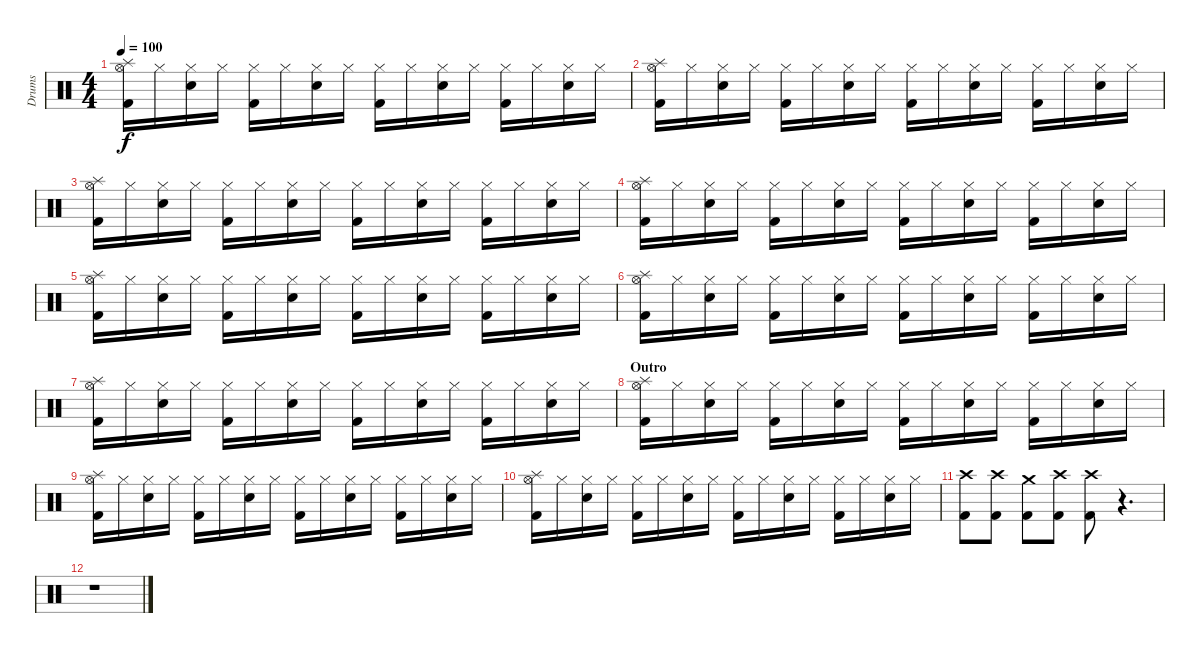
\track ("Drums" "Drums") {instrument percussion}
\staff {score}
\articulation defaults
\ts (4 4)
\tempo 100
\clef neutral
\ks c
("Hi-Hat (open)" "Splash (hit)" "Kick (hit) 2").16{dy f} "Hi-Hat (closed)".16 ("Hi-Hat (closed)" "Snare (hit) 2").16 "Hi-Hat (closed)".16 ("Hi-Hat (closed)" "Kick (hit) 2").16 "Hi-Hat (closed)".16 ("Hi-Hat (closed)" "Snare (hit) 2").16 "Hi-Hat (closed)".16 ("Hi-Hat (closed)" "Kick (hit) 2").16 "Hi-Hat (closed)".16 ("Hi-Hat (closed)" "Snare (hit) 2").16 "Hi-Hat (closed)".16 ("Hi-Hat (closed)" "Kick (hit) 2").16 "Hi-Hat (closed)".16 ("Hi-Hat (closed)" "Snare (hit) 2").16 "Hi-Hat (closed)".16 |
("Hi-Hat (open)" "Splash (hit)" "Kick (hit) 2").16 "Hi-Hat (closed)".16 ("Hi-Hat (closed)" "Snare (hit) 2").16 "Hi-Hat (closed)".16 ("Hi-Hat (closed)" "Kick (hit) 2").16 "Hi-Hat (closed)".16 ("Hi-Hat (closed)" "Snare (hit) 2").16 "Hi-Hat (closed)".16 ("Hi-Hat (closed)" "Kick (hit) 2").16 "Hi-Hat (closed)".16 ("Hi-Hat (closed)" "Snare (hit) 2").16 "Hi-Hat (closed)".16 ("Hi-Hat (closed)" "Kick (hit) 2").16 "Hi-Hat (closed)".16 ("Hi-Hat (closed)" "Snare (hit) 2").16 "Hi-Hat (closed)".16 |
("Hi-Hat (open)" "Splash (hit)" "Kick (hit) 2").16 "Hi-Hat (closed)".16 ("Hi-Hat (closed)" "Snare (hit) 2").16 "Hi-Hat (closed)".16 ("Hi-Hat (closed)" "Kick (hit) 2").16 "Hi-Hat (closed)".16 ("Hi-Hat (closed)" "Snare (hit) 2").16 "Hi-Hat (closed)".16 ("Hi-Hat (closed)" "Kick (hit) 2").16 "Hi-Hat (closed)".16 ("Hi-Hat (closed)" "Snare (hit) 2").16 "Hi-Hat (closed)".16 ("Hi-Hat (closed)" "Kick (hit) 2").16 "Hi-Hat (closed)".16 ("Hi-Hat (closed)" "Snare (hit) 2").16 "Hi-Hat (closed)".16 |
("Hi-Hat (open)" "Splash (hit)" "Kick (hit) 2").16 "Hi-Hat (closed)".16 ("Hi-Hat (closed)" "Snare (hit) 2").16 "Hi-Hat (closed)".16 ("Hi-Hat (closed)" "Kick (hit) 2").16 "Hi-Hat (closed)".16 ("Hi-Hat (closed)" "Snare (hit) 2").16 "Hi-Hat (closed)".16 ("Hi-Hat (closed)" "Kick (hit) 2").16 "Hi-Hat (closed)".16 ("Hi-Hat (closed)" "Snare (hit) 2").16 "Hi-Hat (closed)".16 ("Hi-Hat (closed)" "Kick (hit) 2").16 "Hi-Hat (closed)".16 ("Hi-Hat (closed)" "Snare (hit) 2").16 "Hi-Hat (closed)".16 |
("Hi-Hat (open)" "Splash (hit)" "Kick (hit) 2").16 "Hi-Hat (closed)".16 ("Hi-Hat (closed)" "Snare (hit) 2").16 "Hi-Hat (closed)".16 ("Hi-Hat (closed)" "Kick (hit) 2").16 "Hi-Hat (closed)".16 ("Hi-Hat (closed)" "Snare (hit) 2").16 "Hi-Hat (closed)".16 ("Hi-Hat (closed)" "Kick (hit) 2").16 "Hi-Hat (closed)".16 ("Hi-Hat (closed)" "Snare (hit) 2").16 "Hi-Hat (closed)".16 ("Hi-Hat (closed)" "Kick (hit) 2").16 "Hi-Hat (closed)".16 ("Hi-Hat (closed)" "Snare (hit) 2").16 "Hi-Hat (closed)".16 |
("Hi-Hat (open)" "Splash (hit)" "Kick (hit) 2").16 "Hi-Hat (closed)".16 ("Hi-Hat (closed)" "Snare (hit) 2").16 "Hi-Hat (closed)".16 ("Hi-Hat (closed)" "Kick (hit) 2").16 "Hi-Hat (closed)".16 ("Hi-Hat (closed)" "Snare (hit) 2").16 "Hi-Hat (closed)".16 ("Hi-Hat (closed)" "Kick (hit) 2").16 "Hi-Hat (closed)".16 ("Hi-Hat (closed)" "Snare (hit) 2").16 "Hi-Hat (closed)".16 ("Hi-Hat (closed)" "Kick (hit) 2").16 "Hi-Hat (closed)".16 ("Hi-Hat (closed)" "Snare (hit) 2").16 "Hi-Hat (closed)".16 |
("Hi-Hat (open)" "Splash (hit)" "Kick (hit) 2").16 "Hi-Hat (closed)".16 ("Hi-Hat (closed)" "Snare (hit) 2").16 "Hi-Hat (closed)".16 ("Hi-Hat (closed)" "Kick (hit) 2").16 "Hi-Hat (closed)".16 ("Hi-Hat (closed)" "Snare (hit) 2").16 "Hi-Hat (closed)".16 ("Hi-Hat (closed)" "Kick (hit) 2").16 "Hi-Hat (closed)".16 ("Hi-Hat (closed)" "Snare (hit) 2").16 "Hi-Hat (closed)".16 ("Hi-Hat (closed)" "Kick (hit) 2").16 "Hi-Hat (closed)".16 ("Hi-Hat (closed)" "Snare (hit) 2").16 "Hi-Hat (closed)".16 |
\section ("" "Outro")
("Hi-Hat (open)" "Splash (hit)" "Kick (hit) 2").16 "Hi-Hat (closed)".16 ("Hi-Hat (closed)" "Snare (hit) 2").16 "Hi-Hat (closed)".16 ("Hi-Hat (closed)" "Kick (hit) 2").16 "Hi-Hat (closed)".16 ("Hi-Hat (closed)" "Snare (hit) 2").16 "Hi-Hat (closed)".16 ("Hi-Hat (closed)" "Kick (hit) 2").16 "Hi-Hat (closed)".16 ("Hi-Hat (closed)" "Snare (hit) 2").16 "Hi-Hat (closed)".16 ("Hi-Hat (closed)" "Kick (hit) 2").16 "Hi-Hat (closed)".16 ("Hi-Hat (closed)" "Snare (hit) 2").16 "Hi-Hat (closed)".16 |
("Hi-Hat (open)" "Splash (hit)" "Kick (hit) 2").16 "Hi-Hat (closed)".16 ("Hi-Hat (closed)" "Snare (hit) 2").16 "Hi-Hat (closed)".16 ("Hi-Hat (closed)" "Kick (hit) 2").16 "Hi-Hat (closed)".16 ("Hi-Hat (closed)" "Snare (hit) 2").16 "Hi-Hat (closed)".16 ("Hi-Hat (closed)" "Kick (hit) 2").16 "Hi-Hat (closed)".16 ("Hi-Hat (closed)" "Snare (hit) 2").16 "Hi-Hat (closed)".16 ("Hi-Hat (closed)" "Kick (hit) 2").16 "Hi-Hat (closed)".16 ("Hi-Hat (closed)" "Snare (hit) 2").16 "Hi-Hat (closed)".16 |
("Hi-Hat (open)" "Splash (hit)" "Kick (hit) 2").16 "Hi-Hat (closed)".16 ("Hi-Hat (closed)" "Snare (hit) 2").16 "Hi-Hat (closed)".16 ("Hi-Hat (closed)" "Kick (hit) 2").16 "Hi-Hat (closed)".16 ("Hi-Hat (closed)" "Snare (hit) 2").16 "Hi-Hat (closed)".16 ("Hi-Hat (closed)" "Kick (hit) 2").16 "Hi-Hat (closed)".16 ("Hi-Hat (closed)" "Snare (hit) 2").16 "Hi-Hat (closed)".16 ("Hi-Hat (closed)" "Kick (hit) 2").16 "Hi-Hat (closed)".16 ("Hi-Hat (closed)" "Snare (hit) 2").16 "Hi-Hat (closed)".16 |
("Crash high (hit)" "Kick (hit) 2").8 ("Crash high (hit)" "Kick (hit) 2").8 ("Crash medium (hit)" "Kick (hit) 2").8 ("Crash high (hit)" "Kick (hit) 2").8 ("Crash high (hit)" "Kick (hit) 2").8 r.4{d} |
r.1
